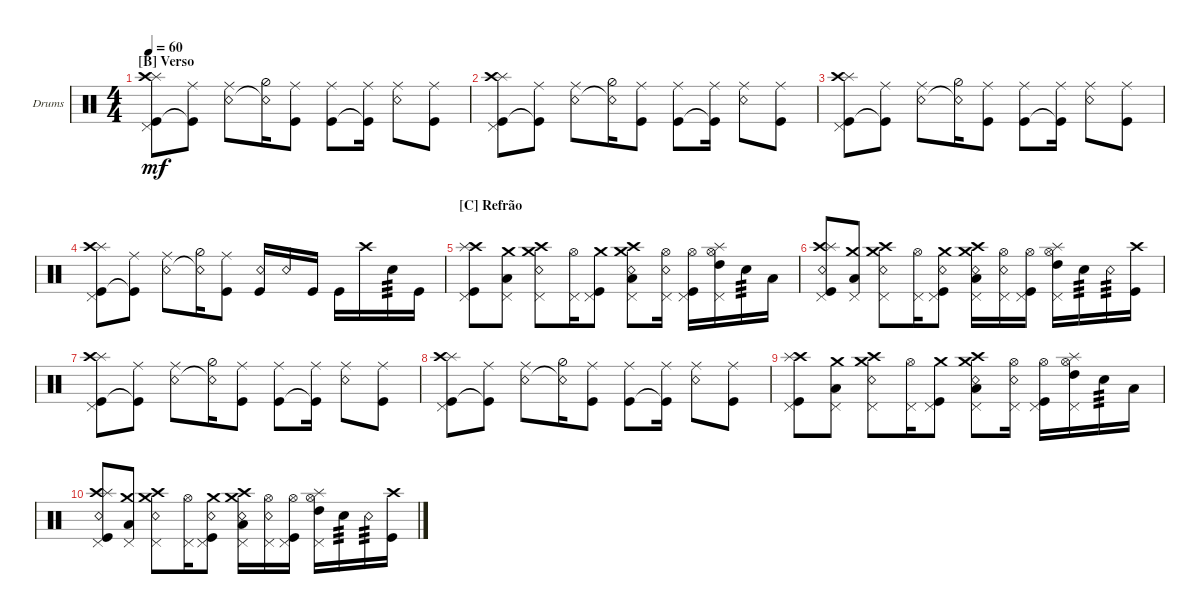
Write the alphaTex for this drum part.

\defaultSystemsLayout 4
\bracketExtendMode groupsimilarinstruments
\firstSystemTrackNameOrientation horizontal
\otherSystemsTrackNameOrientation horizontal
\track ("Drum" "Drums") {multiBarRest instrument percussion}
\staff {score}
\articulation defaults
\ts (4 4)
\section ("B" "Verso")
\tempo 60
\clef neutral
\ks c
("Kick (hit)" "Pedal Hi-Hat (hit)" "Splash (hit)" "Crash high (hit)").8{dy mf} ("Kick (hit)"{t} "Ride (middle)").8 ("Snare (rim shot)" "Ride (middle)").8 ("Snare (rim shot)"{t} "Hi-Hat (half)").16 ("Kick (hit)" "Ride (middle)").8 ("Kick (hit)" "Ride (middle)").8 ("Kick (hit)"{t} "Ride (middle)").16 ("Snare (rim shot)" "Ride (middle)").8 ("Kick (hit)" "Ride (middle)").8 |
("Kick (hit)" "Pedal Hi-Hat (hit)" "Splash (hit)" "Crash high (hit)").8 ("Kick (hit)"{t} "Ride (middle)").8 ("Snare (rim shot)" "Ride (middle)").8 ("Snare (rim shot)"{t} "Hi-Hat (half)").16 ("Kick (hit)" "Ride (middle)").8 ("Kick (hit)" "Ride (middle)").8 ("Kick (hit)"{t} "Ride (middle)").16 ("Snare (rim shot)" "Ride (middle)").8 ("Kick (hit)" "Ride (middle)").8 |
("Kick (hit)" "Pedal Hi-Hat (hit)" "Splash (hit)" "Crash high (hit)").8 ("Kick (hit)"{t} "Ride (middle)").8 ("Snare (rim shot)" "Ride (middle)").8 ("Snare (rim shot)"{t} "Hi-Hat (half)").16 ("Kick (hit)" "Ride (middle)").8 ("Kick (hit)" "Ride (middle)").8 ("Kick (hit)"{t} "Ride (middle)").16 ("Snare (rim shot)" "Ride (middle)").8 ("Kick (hit)" "Ride (middle)").8 |
("Kick (hit)" "Pedal Hi-Hat (hit)" "Splash (hit)" "Crash high (hit)").8 ("Kick (hit)"{t} "Ride (middle)").8 ("Snare (rim shot)" "Ride (middle)").8 ("Snare (rim shot)"{t} "Hi-Hat (half)").16 ("Kick (hit)" "Ride (middle)").8 ("Snare (rim shot)" "Kick (hit)").16 "Snare (rim shot)".16 "Kick (hit)".16 "Kick (hit)".16 "Crash high (hit)".16 "Snare (hit) 2".16{tp 3} "Kick (hit)".16 |
\section ("C" "Refrão")
("Crash high (hit)" "Kick (hit)" "Splash (hit)" "Pedal Hi-Hat (hit)").8 ("Crash medium (hit)" "Low Tom (hit)" "Pedal Hi-Hat (hit)").8 ("Snare (rim shot)" "Pedal Hi-Hat (hit)" "Crash medium (hit)" "Crash high (hit)").8 ("Pedal Hi-Hat (hit)" "Hi-Hat (open)").16 ("Kick (hit)" "Pedal Hi-Hat (hit)" "Crash medium (hit)").8 ("Snare (rim shot)" "Crash medium (hit)" "Crash high (hit)" "Pedal Hi-Hat (hit)" "Low Tom (hit)").8 ("Snare (rim shot)" "Hi-Hat (open)" "Pedal Hi-Hat (hit)").16 ("Hi-Hat (open)" "Kick (hit)" "Pedal Hi-Hat (hit)").16 ("Splash (hit)" "Pedal Hi-Hat (hit)" "Hi-Hat (open)" "High Tom (hit)").16 "Snare (hit) 2".16{tp 3} "Low Tom (hit)".16 |
("Crash high (hit)" "Kick (hit)" "Splash (hit)" "Pedal Hi-Hat (hit)" "Snare (rim shot)").8 ("Crash medium (hit)" "Low Tom (hit)" "Pedal Hi-Hat (hit)").8 ("Snare (rim shot)" "Pedal Hi-Hat (hit)" "Crash medium (hit)" "Crash high (hit)").8 ("Pedal Hi-Hat (hit)" "Hi-Hat (open)").16 ("Kick (hit)" "Pedal Hi-Hat (hit)" "Crash medium (hit)" "Snare (rim shot)").8 ("Snare (rim shot)" "Crash medium (hit)" "Crash high (hit)" "Pedal Hi-Hat (hit)" "Low Tom (hit)").16 ("Snare (rim shot)" "Hi-Hat (open)" "Pedal Hi-Hat (hit)").16 ("Hi-Hat (open)" "Kick (hit)" "Pedal Hi-Hat (hit)").16 ("Splash (hit)" "Pedal Hi-Hat (hit)" "Hi-Hat (open)" "High Tom (hit)").16 "Snare (hit) 2".16{tp 3} "Snare (rim shot)".16{tp 3} ("Crash high (hit)" "Kick (hit)").16 |
("Kick (hit)" "Pedal Hi-Hat (hit)" "Splash (hit)" "Crash high (hit)").8 ("Kick (hit)"{t} "Ride (middle)").8 ("Snare (rim shot)" "Ride (middle)").8 ("Snare (rim shot)"{t} "Hi-Hat (half)").16 ("Kick (hit)" "Ride (middle)").8 ("Kick (hit)" "Ride (middle)").8 ("Kick (hit)"{t} "Ride (middle)").16 ("Snare (rim shot)" "Ride (middle)").8 ("Kick (hit)" "Ride (middle)").8 |
("Kick (hit)" "Pedal Hi-Hat (hit)" "Splash (hit)" "Crash high (hit)").8 ("Kick (hit)"{t} "Ride (middle)").8 ("Snare (rim shot)" "Ride (middle)").8 ("Snare (rim shot)"{t} "Hi-Hat (half)").16 ("Kick (hit)" "Ride (middle)").8 ("Kick (hit)" "Ride (middle)").8 ("Kick (hit)"{t} "Ride (middle)").16 ("Snare (rim shot)" "Ride (middle)").8 ("Kick (hit)" "Ride (middle)").8 |
("Crash high (hit)" "Kick (hit)" "Splash (hit)" "Pedal Hi-Hat (hit)").8 ("Crash medium (hit)" "Low Tom (hit)" "Pedal Hi-Hat (hit)").8 ("Snare (rim shot)" "Pedal Hi-Hat (hit)" "Crash medium (hit)" "Crash high (hit)").8 ("Pedal Hi-Hat (hit)" "Hi-Hat (open)").16 ("Kick (hit)" "Pedal Hi-Hat (hit)" "Crash medium (hit)").8 ("Snare (rim shot)" "Crash medium (hit)" "Crash high (hit)" "Pedal Hi-Hat (hit)" "Low Tom (hit)").8 ("Snare (rim shot)" "Hi-Hat (open)" "Pedal Hi-Hat (hit)").16 ("Hi-Hat (open)" "Kick (hit)" "Pedal Hi-Hat (hit)").16 ("Splash (hit)" "Pedal Hi-Hat (hit)" "Hi-Hat (open)" "High Tom (hit)").16 "Snare (hit) 2".16{tp 3} "Low Tom (hit)".16 |
("Crash high (hit)" "Kick (hit)" "Splash (hit)" "Pedal Hi-Hat (hit)" "Snare (rim shot)").8 ("Crash medium (hit)" "Low Tom (hit)" "Pedal Hi-Hat (hit)").8 ("Snare (rim shot)" "Pedal Hi-Hat (hit)" "Crash medium (hit)" "Crash high (hit)").8 ("Pedal Hi-Hat (hit)" "Hi-Hat (open)").16 ("Kick (hit)" "Pedal Hi-Hat (hit)" "Crash medium (hit)" "Snare (rim shot)").8 ("Snare (rim shot)" "Crash medium (hit)" "Crash high (hit)" "Pedal Hi-Hat (hit)" "Low Tom (hit)").16 ("Snare (rim shot)" "Hi-Hat (open)" "Pedal Hi-Hat (hit)").16 ("Hi-Hat (open)" "Kick (hit)" "Pedal Hi-Hat (hit)").16 ("Splash (hit)" "Pedal Hi-Hat (hit)" "Hi-Hat (open)" "High Tom (hit)").16 "Snare (hit) 2".16{tp 3} "Snare (rim shot)".16{tp 3} ("Crash high (hit)" "Kick (hit)").16
